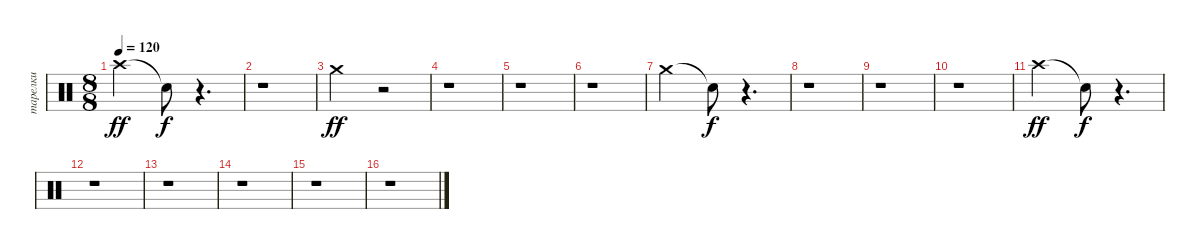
\track ("тарелки" "тарелки") {instrument percussion}
\staff {score}
\articulation defaults
\ts (8 8)
\tempo 120
\clef neutral
\ks c "Crash high (hit)".2{dy ff} "Snare (hit)"{t}.8{dy f}
r.4{d} |
r.1 |
"Crash medium (hit)".2{dy ff} r.2 |
r.1 |
r.1 |
r.1 |
"Crash medium (hit)".2 "Snare (hit)"{t}.8{dy f} r.4{d} |
r.1 |
r.1 |
r.1 |
"Crash high (hit)".2{dy ff} "Snare (hit)"{t}.8{dy f} r.4{d} |
r.1 |
r.1 |
r.1 |
r.1 |
r.1
